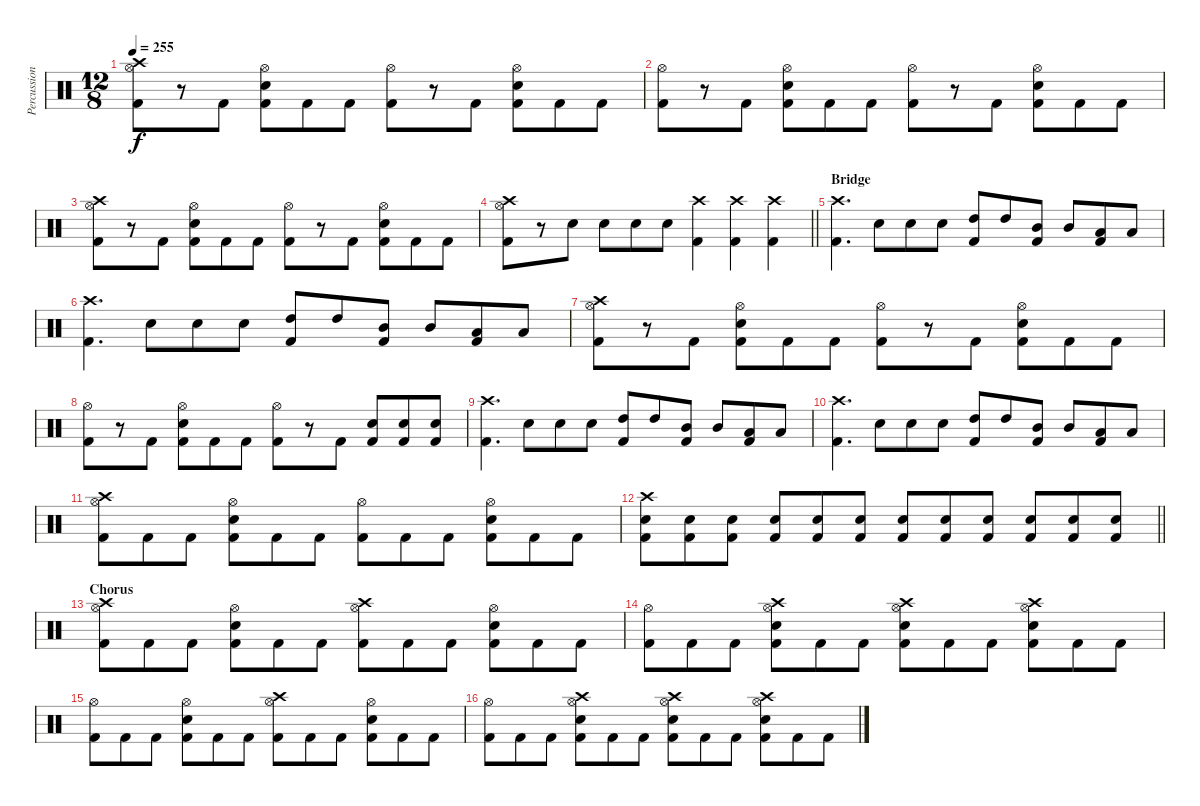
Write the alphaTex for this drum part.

\track ("Percussion" "Percussion") {instrument percussion}
\staff {score}
\articulation defaults
\ts (12 8)
\tempo 255
\clef neutral
\ks c
("Crash high (hit)" "Hi-Hat (open)" "Kick (hit) 2").8{dy f} r.8 "Kick (hit) 2".8 ("Hi-Hat (open)" "Snare (hit) 2" "Kick (hit) 2").8 "Kick (hit) 2".8 "Kick (hit) 2".8 ("Hi-Hat (open)" "Kick (hit) 2").8 r.8 "Kick (hit) 2".8 ("Hi-Hat (open)" "Snare (hit) 2" "Kick (hit) 2").8 "Kick (hit) 2".8 "Kick (hit) 2".8 |
("Hi-Hat (open)" "Kick (hit) 2").8 r.8 "Kick (hit) 2".8 ("Hi-Hat (open)" "Snare (hit) 2" "Kick (hit) 2").8 "Kick (hit) 2".8 "Kick (hit) 2".8 ("Hi-Hat (open)" "Kick (hit) 2").8 r.8 "Kick (hit) 2".8 ("Hi-Hat (open)" "Snare (hit) 2" "Kick (hit) 2").8 "Kick (hit) 2".8 "Kick (hit) 2".8 |
("Crash high (hit)" "Hi-Hat (open)" "Kick (hit) 2").8 r.8 "Kick (hit) 2".8 ("Hi-Hat (open)" "Snare (hit) 2" "Kick (hit) 2").8 "Kick (hit) 2".8 "Kick (hit) 2".8 ("Hi-Hat (open)" "Kick (hit) 2").8 r.8 "Kick (hit) 2".8 ("Hi-Hat (open)" "Snare (hit) 2" "Kick (hit) 2").8 "Kick (hit) 2".8 "Kick (hit) 2".8 |
\barLineRight lightlight
("Crash high (hit)" "Hi-Hat (open)" "Kick (hit) 2").8 r.8 "Snare (hit) 2".8 "Snare (hit) 2".8 "Snare (hit) 2".8 "Snare (hit) 2".8 ("Crash high (hit)" "Kick (hit) 2").4 ("Crash high (hit)" "Kick (hit) 2").4 ("Crash high (hit)" "Kick (hit) 2").4 |
\section ("" "Bridge")
("Crash high (hit)" "Kick (hit) 2").4{d} "Snare (hit) 2".8 "Snare (hit) 2".8 "Snare (hit) 2".8 ("High Tom (hit)" "Kick (hit) 2").8 "High Tom (hit)".8 ("Mid Tom (hit)" "Kick (hit) 2").8 "Mid Tom (hit)".8 ("Low Tom (hit)" "Kick (hit) 2").8 "Low Tom (hit)".8 |
("Crash high (hit)" "Kick (hit) 2").4{d} "Snare (hit) 2".8 "Snare (hit) 2".8 "Snare (hit) 2".8 ("High Tom (hit)" "Kick (hit) 2").8 "High Tom (hit)".8 ("Mid Tom (hit)" "Kick (hit) 2").8 "Mid Tom (hit)".8 ("Low Tom (hit)" "Kick (hit) 2").8 "Low Tom (hit)".8 |
("Crash high (hit)" "Hi-Hat (open)" "Kick (hit) 2").8 r.8 "Kick (hit) 2".8 ("Hi-Hat (open)" "Snare (hit) 2" "Kick (hit) 2").8 "Kick (hit) 2".8 "Kick (hit) 2".8 ("Hi-Hat (open)" "Kick (hit) 2").8 r.8 "Kick (hit) 2".8 ("Hi-Hat (open)" "Snare (hit) 2" "Kick (hit) 2").8 "Kick (hit) 2".8 "Kick (hit) 2".8 |
("Hi-Hat (open)" "Kick (hit) 2").8 r.8 "Kick (hit) 2".8 ("Hi-Hat (open)" "Snare (hit) 2" "Kick (hit) 2").8 "Kick (hit) 2".8 "Kick (hit) 2".8 ("Hi-Hat (open)" "Kick (hit) 2").8 r.8 "Kick (hit) 2".8 ("Snare (hit) 2" "Kick (hit) 2").8 ("Snare (hit) 2" "Kick (hit) 2").8 ("Snare (hit) 2" "Kick (hit) 2").8 |
("Crash high (hit)" "Kick (hit) 2").4{d} "Snare (hit) 2".8 "Snare (hit) 2".8 "Snare (hit) 2".8 ("High Tom (hit)" "Kick (hit) 2").8 "High Tom (hit)".8 ("Mid Tom (hit)" "Kick (hit) 2").8 "Mid Tom (hit)".8 ("Low Tom (hit)" "Kick (hit) 2").8 "Low Tom (hit)".8 |
("Crash high (hit)" "Kick (hit) 2").4{d} "Snare (hit) 2".8 "Snare (hit) 2".8 "Snare (hit) 2".8 ("High Tom (hit)" "Kick (hit) 2").8 "High Tom (hit)".8 ("Mid Tom (hit)" "Kick (hit) 2").8 "Mid Tom (hit)".8 ("Low Tom (hit)" "Kick (hit) 2").8 "Low Tom (hit)".8 |
("Crash high (hit)" "Hi-Hat (open)" "Kick (hit) 2").8 "Kick (hit) 2".8 "Kick (hit) 2".8 ("Hi-Hat (open)" "Snare (hit) 2" "Kick (hit) 2").8 "Kick (hit) 2".8 "Kick (hit) 2".8 ("Hi-Hat (open)" "Kick (hit) 2").8 "Kick (hit) 2".8 "Kick (hit) 2".8 ("Hi-Hat (open)" "Snare (hit) 2" "Kick (hit) 2").8 "Kick (hit) 2".8 "Kick (hit) 2".8 |
\barLineRight lightlight
("Crash high (hit)" "Snare (hit) 2" "Kick (hit) 2").8 ("Snare (hit) 2" "Kick (hit) 2").8 ("Snare (hit) 2" "Kick (hit) 2").8 ("Snare (hit) 2" "Kick (hit) 2").8 ("Snare (hit) 2" "Kick (hit) 2").8 ("Snare (hit) 2" "Kick (hit) 2").8 ("Snare (hit) 2" "Kick (hit) 2").8 ("Snare (hit) 2" "Kick (hit) 2").8 ("Snare (hit) 2" "Kick (hit) 2").8 ("Snare (hit) 2" "Kick (hit) 2").8 ("Snare (hit) 2" "Kick (hit) 2").8 ("Snare (hit) 2" "Kick (hit) 2").8 |
\section ("" "Chorus")
("Crash high (hit)" "Hi-Hat (open)" "Kick (hit) 2").8 "Kick (hit) 2".8 "Kick (hit) 2".8 ("Hi-Hat (open)" "Snare (hit) 2" "Kick (hit) 2").8 "Kick (hit) 2".8 "Kick (hit) 2".8 ("Crash high (hit)" "Hi-Hat (open)" "Kick (hit) 2").8 "Kick (hit) 2".8 "Kick (hit) 2".8 ("Hi-Hat (open)" "Snare (hit) 2" "Kick (hit) 2").8 "Kick (hit) 2".8 "Kick (hit) 2".8 |
("Hi-Hat (open)" "Kick (hit) 2").8 "Kick (hit) 2".8 "Kick (hit) 2".8 ("Crash high (hit)" "Hi-Hat (open)" "Snare (hit) 2" "Kick (hit) 2").8 "Kick (hit) 2".8 "Kick (hit) 2".8 ("Crash high (hit)" "Hi-Hat (open)" "Snare (hit) 2" "Kick (hit) 2").8 "Kick (hit) 2".8 "Kick (hit) 2".8 ("Crash high (hit)" "Hi-Hat (open)" "Snare (hit) 2" "Kick (hit) 2").8 "Kick (hit) 2".8 "Kick (hit) 2".8 |
("Hi-Hat (open)" "Kick (hit) 2").8 "Kick (hit) 2".8 "Kick (hit) 2".8 ("Hi-Hat (open)" "Snare (hit) 2" "Kick (hit) 2").8 "Kick (hit) 2".8 "Kick (hit) 2".8 ("Crash high (hit)" "Hi-Hat (open)" "Kick (hit) 2").8 "Kick (hit) 2".8 "Kick (hit) 2".8 ("Hi-Hat (open)" "Snare (hit) 2" "Kick (hit) 2").8 "Kick (hit) 2".8 "Kick (hit) 2".8 |
("Hi-Hat (open)" "Kick (hit) 2").8 "Kick (hit) 2".8 "Kick (hit) 2".8 ("Crash high (hit)" "Hi-Hat (open)" "Snare (hit) 2" "Kick (hit) 2").8 "Kick (hit) 2".8 "Kick (hit) 2".8 ("Crash high (hit)" "Hi-Hat (open)" "Snare (hit) 2" "Kick (hit) 2").8 "Kick (hit) 2".8 "Kick (hit) 2".8 ("Crash high (hit)" "Hi-Hat (open)" "Snare (hit) 2" "Kick (hit) 2").8 "Kick (hit) 2".8 "Kick (hit) 2".8
